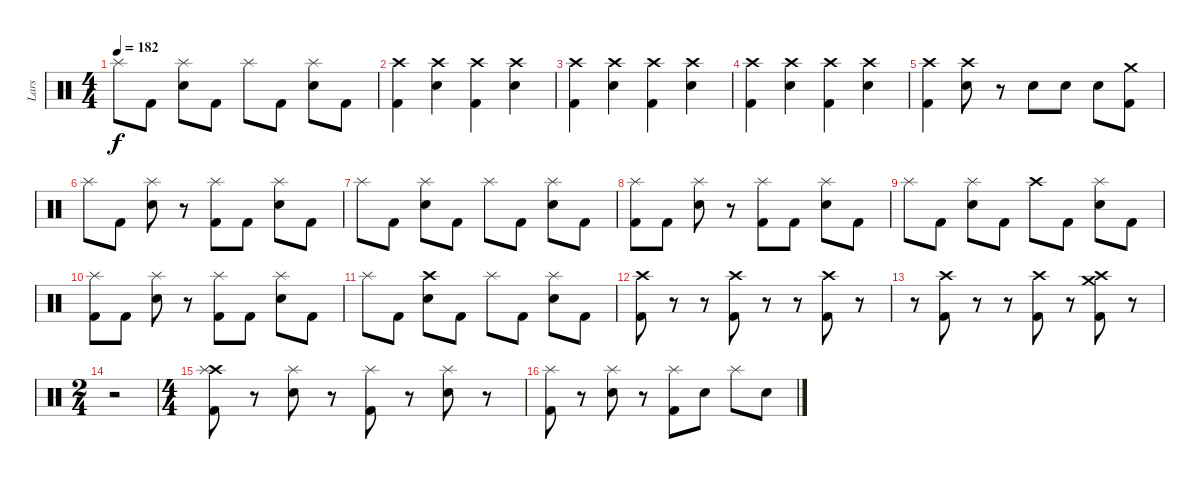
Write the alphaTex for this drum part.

\track ("Lars" "Lars") {instrument percussion}
\staff {score}
\articulation defaults
\ts (4 4)
\tempo 182
\clef neutral
\ks c "Splash (hit)".8{dy f} "Kick (hit) 2".8
("Splash (hit)" "Snare (hit) 2").8 "Kick (hit) 2".8 "Splash (hit)".8 "Kick (hit) 2".8 ("Splash (hit)" "Snare (hit) 2").8 "Kick (hit) 2".8 |
("Crash high (hit)" "Kick (hit) 2").4 ("Crash high (hit)" "Snare (hit) 2").4 ("Crash high (hit)" "Kick (hit) 2").4 ("Crash high (hit)" "Snare (hit) 2").4 |
("Crash high (hit)" "Kick (hit) 2").4 ("Crash high (hit)" "Snare (hit) 2").4 ("Crash high (hit)" "Kick (hit) 2").4 ("Crash high (hit)" "Snare (hit) 2").4 |
("Crash high (hit)" "Kick (hit) 2").4 ("Crash high (hit)" "Snare (hit) 2").4 ("Crash high (hit)" "Kick (hit) 2").4 ("Crash high (hit)" "Snare (hit) 2").4 |
("Crash high (hit)" "Kick (hit) 2").4 ("Crash high (hit)" "Snare (hit) 2").8 r.8 "Snare (hit) 2".8 "Snare (hit) 2".8 "Snare (hit) 2".8 ("Crash medium (hit)" "Kick (hit) 2").8 |
"Splash (hit)".8 "Kick (hit) 2".8 ("Splash (hit)" "Snare (hit) 2").8 r.8 ("Splash (hit)" "Kick (hit) 2").8 "Kick (hit) 2".8 ("Splash (hit)" "Snare (hit) 2").8 "Kick (hit) 2".8 |
"Splash (hit)".8 "Kick (hit) 2".8 ("Splash (hit)" "Snare (hit) 2").8 "Kick (hit) 2".8 "Splash (hit)".8 "Kick (hit) 2".8 ("Splash (hit)" "Snare (hit) 2").8 "Kick (hit) 2".8 |
("Splash (hit)" "Kick (hit) 2").8 "Kick (hit) 2".8 ("Splash (hit)" "Snare (hit) 2").8 r.8 ("Splash (hit)" "Kick (hit) 2").8 "Kick (hit) 2".8 ("Splash (hit)" "Snare (hit) 2").8 "Kick (hit) 2".8 |
"Splash (hit)".8 "Kick (hit) 2".8 ("Splash (hit)" "Snare (hit) 2").8 "Kick (hit) 2".8 "Crash high (hit)".8 "Kick (hit) 2".8 ("Splash (hit)" "Snare (hit) 2").8 "Kick (hit) 2".8 |
("Splash (hit)" "Kick (hit) 2").8 "Kick (hit) 2".8 ("Splash (hit)" "Snare (hit) 2").8 r.8 ("Splash (hit)" "Kick (hit) 2").8 "Kick (hit) 2".8 ("Splash (hit)" "Snare (hit) 2").8 "Kick (hit) 2".8 |
"Splash (hit)".8 "Kick (hit) 2".8 ("Crash high (hit)" "Snare (hit) 2").8 "Kick (hit) 2".8 "Splash (hit)".8 "Kick (hit) 2".8 ("Splash (hit)" "Snare (hit) 2").8 "Kick (hit) 2".8 |
("Crash high (hit)" "Kick (hit) 2").8 r.8 r.8 ("Crash high (hit)" "Kick (hit) 2").8 r.8 r.8 ("Crash high (hit)" "Kick (hit) 2").8 r.8 |
r.8 ("Crash high (hit)" "Kick (hit) 2").8 r.8 r.8 ("Crash high (hit)" "Kick (hit) 2").8 r.8 ("Crash medium (hit)" "Crash high (hit)" "Kick (hit) 2").8 r.8 |
\ts (2 4)
r.2 |
\ts (4 4)
("Crash high (hit)" "Splash (hit)" "Kick (hit) 2").8 r.8 ("Splash (hit)" "Snare (hit) 2").8 r.8 ("Splash (hit)" "Kick (hit) 2").8 r.8 ("Splash (hit)" "Snare (hit) 2").8 r.8 |
("Splash (hit)" "Kick (hit) 2").8 r.8 ("Splash (hit)" "Snare (hit) 2").8 r.8 ("Splash (hit)" "Kick (hit) 2").8 "Snare (hit) 2".8 "Splash (hit)".8 "Snare (hit) 2".8
